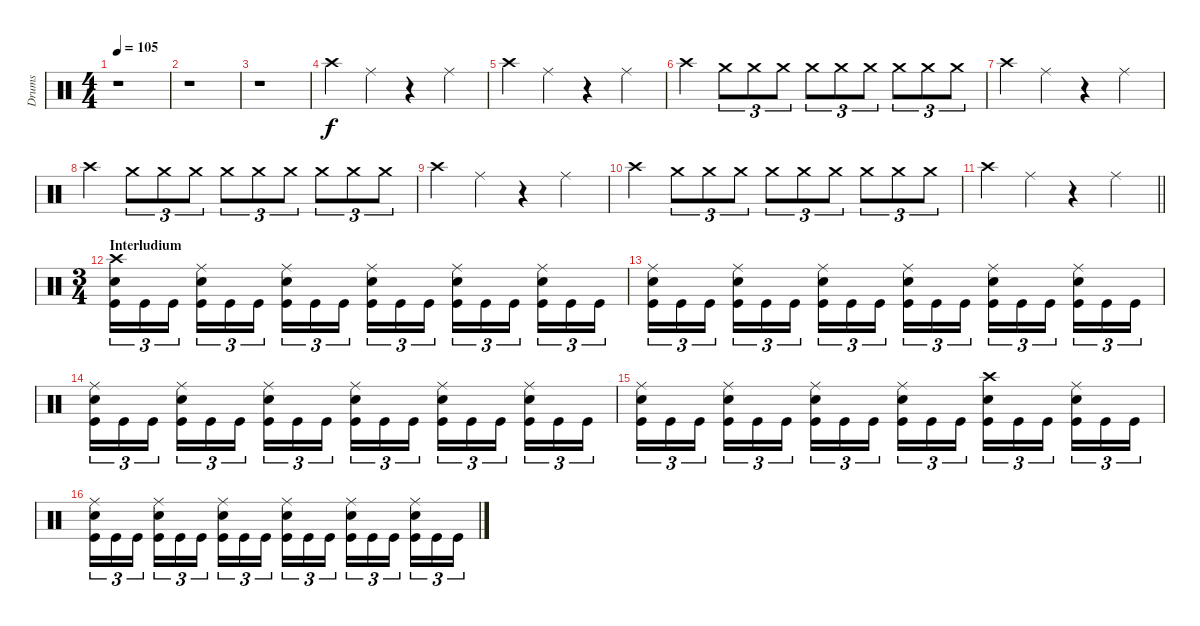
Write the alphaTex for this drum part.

\track ("Drums" "Drums") {instrument percussion}
\staff {score}
\articulation defaults
\ts (4 4)
\tempo 105
\clef neutral
\ks c
r.1{dy f} |
r.1 |
r.1 |
"Crash high (hit)".4 "Ride (middle)".4 r.4 "Ride (middle)".4 |
"Crash high (hit)".4 "Ride (middle)".4 r.4 "Ride (middle)".4 |
"Crash high (hit)".4 "Crash medium (hit)".8{tu (3 2)} "Crash medium (hit)".8{tu (3 2)} "Crash medium (hit)".8{tu (3 2)} "Crash medium (hit)".8{tu (3 2)} "Crash medium (hit)".8{tu (3 2)} "Crash medium (hit)".8{tu (3 2)} "Crash medium (hit)".8{tu (3 2)} "Crash medium (hit)".8{tu (3 2)} "Crash medium (hit)".8{tu (3 2)} |
"Crash high (hit)".4 "Ride (middle)".4 r.4 "Ride (middle)".4 |
"Crash high (hit)".4 "Crash medium (hit)".8{tu (3 2)} "Crash medium (hit)".8{tu (3 2)} "Crash medium (hit)".8{tu (3 2)} "Crash medium (hit)".8{tu (3 2)} "Crash medium (hit)".8{tu (3 2)} "Crash medium (hit)".8{tu (3 2)} "Crash medium (hit)".8{tu (3 2)} "Crash medium (hit)".8{tu (3 2)} "Crash medium (hit)".8{tu (3 2)} |
"Crash high (hit)".4 "Ride (middle)".4 r.4 "Ride (middle)".4 |
"Crash high (hit)".4 "Crash medium (hit)".8{tu (3 2)} "Crash medium (hit)".8{tu (3 2)} "Crash medium (hit)".8{tu (3 2)} "Crash medium (hit)".8{tu (3 2)} "Crash medium (hit)".8{tu (3 2)} "Crash medium (hit)".8{tu (3 2)} "Crash medium (hit)".8{tu (3 2)} "Crash medium (hit)".8{tu (3 2)} "Crash medium (hit)".8{tu (3 2)} |
\barLineRight lightlight "Crash high (hit)".4 "Ride (middle)".4
r.4 "Ride (middle)".4 |
\ts (3 4)
\section ("" "Interludium")
("Crash high (hit)" "Snare (hit) 2" "Kick (hit)").16{tu (3 2)} "Kick (hit)".16{tu (3 2)} "Kick (hit)".16{tu (3 2)} ("Ride (middle)" "Snare (hit) 2" "Kick (hit)").16{tu (3 2)} "Kick (hit)".16{tu (3 2)} "Kick (hit)".16{tu (3 2)} ("Ride (middle)" "Snare (hit) 2" "Kick (hit)").16{tu (3 2)} "Kick (hit)".16{tu (3 2)} "Kick (hit)".16{tu (3 2)} ("Ride (middle)" "Snare (hit) 2" "Kick (hit)").16{tu (3 2)} "Kick (hit)".16{tu (3 2)} "Kick (hit)".16{tu (3 2)} ("Ride (middle)" "Snare (hit) 2" "Kick (hit)").16{tu (3 2)} "Kick (hit)".16{tu (3 2)} "Kick (hit)".16{tu (3 2)} ("Ride (middle)" "Snare (hit) 2" "Kick (hit)").16{tu (3 2)} "Kick (hit)".16{tu (3 2)} "Kick (hit)".16{tu (3 2)} |
("Ride (middle)" "Snare (hit) 2" "Kick (hit)").16{tu (3 2)} "Kick (hit)".16{tu (3 2)} "Kick (hit)".16{tu (3 2)} ("Ride (middle)" "Snare (hit) 2" "Kick (hit)").16{tu (3 2)} "Kick (hit)".16{tu (3 2)} "Kick (hit)".16{tu (3 2)} ("Ride (middle)" "Snare (hit) 2" "Kick (hit)").16{tu (3 2)} "Kick (hit)".16{tu (3 2)} "Kick (hit)".16{tu (3 2)} ("Ride (middle)" "Snare (hit) 2" "Kick (hit)").16{tu (3 2)} "Kick (hit)".16{tu (3 2)} "Kick (hit)".16{tu (3 2)} ("Ride (middle)" "Snare (hit) 2" "Kick (hit)").16{tu (3 2)} "Kick (hit)".16{tu (3 2)} "Kick (hit)".16{tu (3 2)} ("Ride (middle)" "Snare (hit) 2" "Kick (hit)").16{tu (3 2)} "Kick (hit)".16{tu (3 2)} "Kick (hit)".16{tu (3 2)} |
("Ride (middle)" "Snare (hit) 2" "Kick (hit)").16{tu (3 2)} "Kick (hit)".16{tu (3 2)} "Kick (hit)".16{tu (3 2)} ("Ride (middle)" "Snare (hit) 2" "Kick (hit)").16{tu (3 2)} "Kick (hit)".16{tu (3 2)} "Kick (hit)".16{tu (3 2)} ("Ride (middle)" "Snare (hit) 2" "Kick (hit)").16{tu (3 2)} "Kick (hit)".16{tu (3 2)} "Kick (hit)".16{tu (3 2)} ("Ride (middle)" "Snare (hit) 2" "Kick (hit)").16{tu (3 2)} "Kick (hit)".16{tu (3 2)} "Kick (hit)".16{tu (3 2)} ("Ride (middle)" "Snare (hit) 2" "Kick (hit)").16{tu (3 2)} "Kick (hit)".16{tu (3 2)} "Kick (hit)".16{tu (3 2)} ("Ride (middle)" "Snare (hit) 2" "Kick (hit)").16{tu (3 2)} "Kick (hit)".16{tu (3 2)} "Kick (hit)".16{tu (3 2)} |
("Ride (middle)" "Snare (hit) 2" "Kick (hit)").16{tu (3 2)} "Kick (hit)".16{tu (3 2)} "Kick (hit)".16{tu (3 2)} ("Ride (middle)" "Snare (hit) 2" "Kick (hit)").16{tu (3 2)} "Kick (hit)".16{tu (3 2)} "Kick (hit)".16{tu (3 2)} ("Ride (middle)" "Snare (hit) 2" "Kick (hit)").16{tu (3 2)} "Kick (hit)".16{tu (3 2)} "Kick (hit)".16{tu (3 2)} ("Ride (middle)" "Snare (hit) 2" "Kick (hit)").16{tu (3 2)} "Kick (hit)".16{tu (3 2)} "Kick (hit)".16{tu (3 2)} ("Crash high (hit)" "Snare (hit) 2" "Kick (hit)").16{tu (3 2)} "Kick (hit)".16{tu (3 2)} "Kick (hit)".16{tu (3 2)} ("Ride (middle)" "Snare (hit) 2" "Kick (hit)").16{tu (3 2)} "Kick (hit)".16{tu (3 2)} "Kick (hit)".16{tu (3 2)} |
("Ride (middle)" "Snare (hit) 2" "Kick (hit)").16{tu (3 2)} "Kick (hit)".16{tu (3 2)} "Kick (hit)".16{tu (3 2)} ("Ride (middle)" "Snare (hit) 2" "Kick (hit)").16{tu (3 2)} "Kick (hit)".16{tu (3 2)} "Kick (hit)".16{tu (3 2)} ("Ride (middle)" "Snare (hit) 2" "Kick (hit)").16{tu (3 2)} "Kick (hit)".16{tu (3 2)} "Kick (hit)".16{tu (3 2)} ("Ride (middle)" "Snare (hit) 2" "Kick (hit)").16{tu (3 2)} "Kick (hit)".16{tu (3 2)} "Kick (hit)".16{tu (3 2)} ("Ride (middle)" "Snare (hit) 2" "Kick (hit)").16{tu (3 2)} "Kick (hit)".16{tu (3 2)} "Kick (hit)".16{tu (3 2)} ("Ride (middle)" "Snare (hit) 2" "Kick (hit)").16{tu (3 2)} "Kick (hit)".16{tu (3 2)} "Kick (hit)".16{tu (3 2)}
